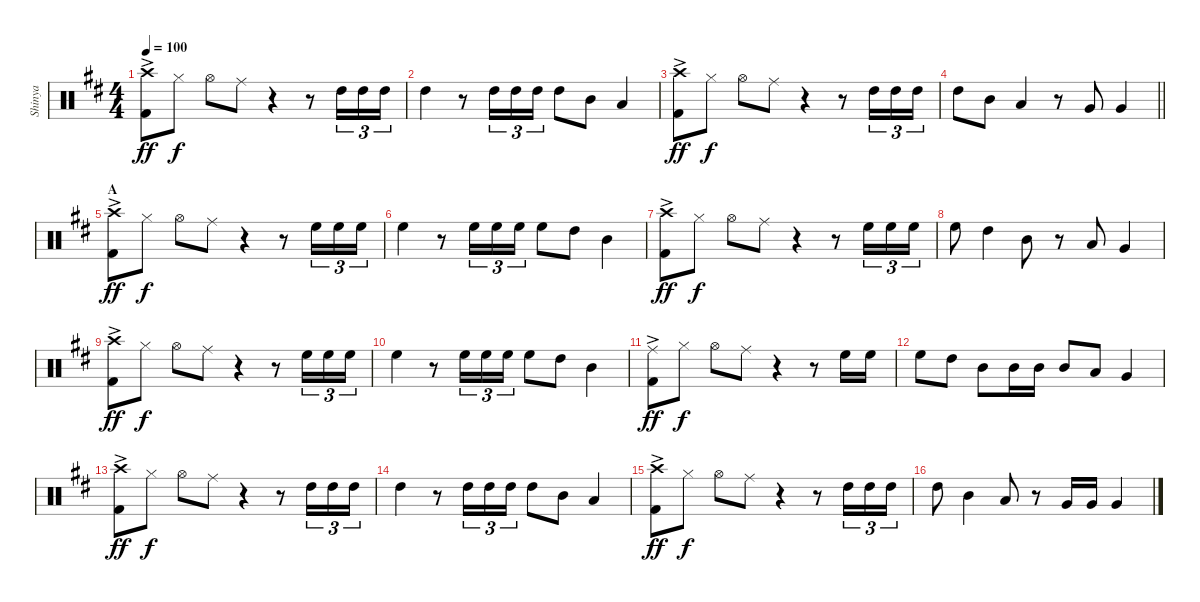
\track ("Shinya" "Shinya") {instrument percussion}
\staff {score}
\articulation defaults
\ts (4 4)
\tempo 100
\clef neutral
\ks d
("Crash high (hit)" "Kick (hit) 2"{ac}).8{dy ff} "Hi-Hat (closed)".8{dy f} "Hi-Hat (open)".8 "Ride (middle)".8 r.4 r.8 "High Tom (hit)".16{tu (3 2)} "High Tom (hit)".16{tu (3 2)} "High Tom (hit)".16{tu (3 2)} |
"High Tom (hit)".4 r.8 "High Tom (hit)".16{tu (3 2)} "High Tom (hit)".16{tu (3 2)} "High Tom (hit)".16{tu (3 2)} "High Tom (hit)".8 "Mid Tom (hit)".8 "Low Tom (hit)".4 |
("Crash high (hit)" "Kick (hit) 2"{ac}).8{dy ff} "Hi-Hat (closed)".8{dy f} "Hi-Hat (open)".8 "Ride (middle)".8 r.4 r.8 "High Tom (hit)".16{tu (3 2)} "High Tom (hit)".16{tu (3 2)} "High Tom (hit)".16{tu (3 2)} |
\barLineRight lightlight "High Tom (hit)".8 "Mid Tom (hit)".8 "Low Tom (hit)".4
r.8 "Very Low Tom (hit)".8 "Very Low Tom (hit)".4 |
\section ("" "A")
("Crash high (hit)"{ac} "Kick (hit) 2").8{dy ff} "Hi-Hat (closed)".8{dy f} "Hi-Hat (open)".8 "Ride (middle)".8 r.4 r.8 "High Floor Tom (hit)".16{tu (3 2)} "High Floor Tom (hit)".16{tu (3 2)} "High Floor Tom (hit)".16{tu (3 2)} |
"High Floor Tom (hit)".4 r.8 "High Floor Tom (hit)".16{tu (3 2)} "High Floor Tom (hit)".16{tu (3 2)} "High Floor Tom (hit)".16{tu (3 2)} "High Floor Tom (hit)".8 "High Tom (hit)".8 "Mid Tom (hit)".4 |
("Crash high (hit)"{ac} "Kick (hit) 2").8{dy ff} "Hi-Hat (closed)".8{dy f} "Hi-Hat (open)".8 "Ride (middle)".8 r.4 r.8 "High Floor Tom (hit)".16{tu (3 2)} "High Floor Tom (hit)".16{tu (3 2)} "High Floor Tom (hit)".16{tu (3 2)} |
"High Floor Tom (hit)".8 "High Tom (hit)".4 "Mid Tom (hit)".8 r.8 "Low Tom (hit)".8 "Very Low Tom (hit)".4 |
("Crash high (hit)"{ac} "Kick (hit) 2").8{dy ff} "Hi-Hat (closed)".8{dy f} "Hi-Hat (open)".8 "Ride (middle)".8 r.4 r.8 "High Floor Tom (hit)".16{tu (3 2)} "High Floor Tom (hit)".16{tu (3 2)} "High Floor Tom (hit)".16{tu (3 2)} |
"High Floor Tom (hit)".4 r.8 "High Floor Tom (hit)".16{tu (3 2)} "High Floor Tom (hit)".16{tu (3 2)} "High Floor Tom (hit)".16{tu (3 2)} "High Floor Tom (hit)".8 "High Tom (hit)".8 "Mid Tom (hit)".4 |
("Ride (middle)"{ac} "Kick (hit) 2").8{dy ff} "Hi-Hat (closed)".8{dy f} "Hi-Hat (open)".8 "Ride (middle)".8 r.4 r.8 "High Floor Tom (hit)".16 "High Floor Tom (hit)".16 |
"High Floor Tom (hit)".8 "High Tom (hit)".8 "Mid Tom (hit)".8 "Mid Tom (hit)".16 "Mid Tom (hit)".16 "Mid Tom (hit)".8 "Low Tom (hit)".8 "Very Low Tom (hit)".4 |
("Crash high (hit)"{ac} "Kick (hit) 2").8{dy ff} "Hi-Hat (closed)".8{dy f} "Hi-Hat (open)".8 "Ride (middle)".8 r.4 r.8 "High Tom (hit)".16{tu (3 2)} "High Tom (hit)".16{tu (3 2)} "High Tom (hit)".16{tu (3 2)} |
"High Tom (hit)".4 r.8 "High Tom (hit)".16{tu (3 2)} "High Tom (hit)".16{tu (3 2)} "High Tom (hit)".16{tu (3 2)} "High Tom (hit)".8 "Mid Tom (hit)".8 "Low Tom (hit)".4 |
("Crash high (hit)"{ac} "Kick (hit) 2").8{dy ff} "Hi-Hat (closed)".8{dy f} "Hi-Hat (open)".8 "Ride (middle)".8 r.4 r.8 "High Tom (hit)".16{tu (3 2)} "High Tom (hit)".16{tu (3 2)} "High Tom (hit)".16{tu (3 2)} |
"High Tom (hit)".8 "Mid Tom (hit)".4 "Low Tom (hit)".8 r.8 "Very Low Tom (hit)".16 "Very Low Tom (hit)".16 "Very Low Tom (hit)".4
